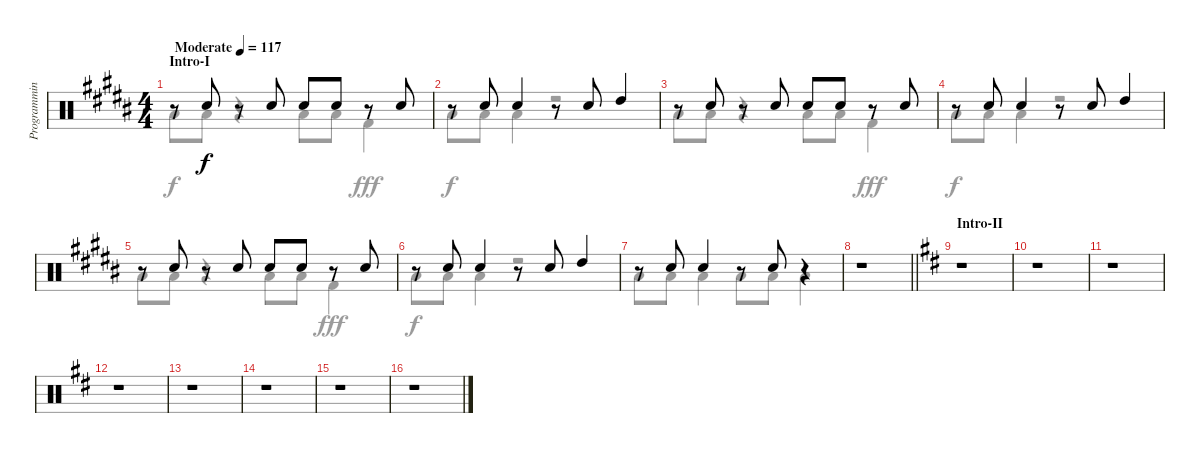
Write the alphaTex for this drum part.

\track ("Programming" "Programmin") {instrument percussion}
\staff {score}
\articulation defaults
\voice
\ts (4 4)
\section ("" "Intro-I")
\tempo (117 "Moderate")
\clef neutral
\ks b
r.8{dy f} "Snare (hit) 2".8 r.8 "Snare (hit) 2".8 "Snare (hit) 2".8 "Snare (hit) 2".8 r.8 "Snare (hit) 2".8 |
r.8 "Snare (hit) 2".8 "Snare (hit) 2".4 r.8 "Snare (hit) 2".8 "High Tom (hit)".4 |
r.8 "Snare (hit) 2".8 r.8 "Snare (hit) 2".8 "Snare (hit) 2".8 "Snare (hit) 2".8 r.8 "Snare (hit) 2".8 |
r.8 "Snare (hit) 2".8 "Snare (hit) 2".4 r.8 "Snare (hit) 2".8 "High Tom (hit)".4 |
r.8 "Snare (hit) 2".8 r.8 "Snare (hit) 2".8 "Snare (hit) 2".8 "Snare (hit) 2".8 r.8 "Snare (hit) 2".8 |
r.8 "Snare (hit) 2".8 "Snare (hit) 2".4 r.8 "Snare (hit) 2".8 "High Tom (hit)".4 |
r.8 "Snare (hit) 2".8 "Snare (hit) 2".4 r.8 "Snare (hit) 2".8 r.4 |
\barLineRight lightlight
r.1 |
\section ("" "Intro-II")
\ks d
r.1 |
r.1 |
r.1 |
r.1 |
r.1 |
r.1 |
r.1 |
r.1
\voice
\clef neutral
\ottava regular
\simile none
\ks b "Low Floor Tom (hit)".8{dy f} "Low Floor Tom (hit)".8
r.4 "Low Floor Tom (hit)".8 "Low Floor Tom (hit)".8 "Kick (hit) 2".4{dy fff} |
"Low Floor Tom (hit)".8{dy f} "Low Floor Tom (hit)".8 "Low Floor Tom (hit)".4 r.2 |
"Low Floor Tom (hit)".8 "Low Floor Tom (hit)".8 r.4 "Low Floor Tom (hit)".8 "Low Floor Tom (hit)".8 "Kick (hit) 2".4{dy fff} |
"Low Floor Tom (hit)".8{dy f} "Low Floor Tom (hit)".8 "Low Floor Tom (hit)".4 r.2 |
"Low Floor Tom (hit)".8 "Low Floor Tom (hit)".8 r.4 "Low Floor Tom (hit)".8 "Low Floor Tom (hit)".8 "Kick (hit) 2".4{dy fff} |
"Low Floor Tom (hit)".8{dy f} "Low Floor Tom (hit)".8 "Low Floor Tom (hit)".4 r.2 |
"Low Floor Tom (hit)".8 "Low Floor Tom (hit)".8 "Low Floor Tom (hit)".4 "Low Floor Tom (hit)".8 "Low Floor Tom (hit)".8 "Low Floor Tom (hit)".4 |
\barLineRight lightlight
|
\ks d
|
|
|
|
|
|
|
